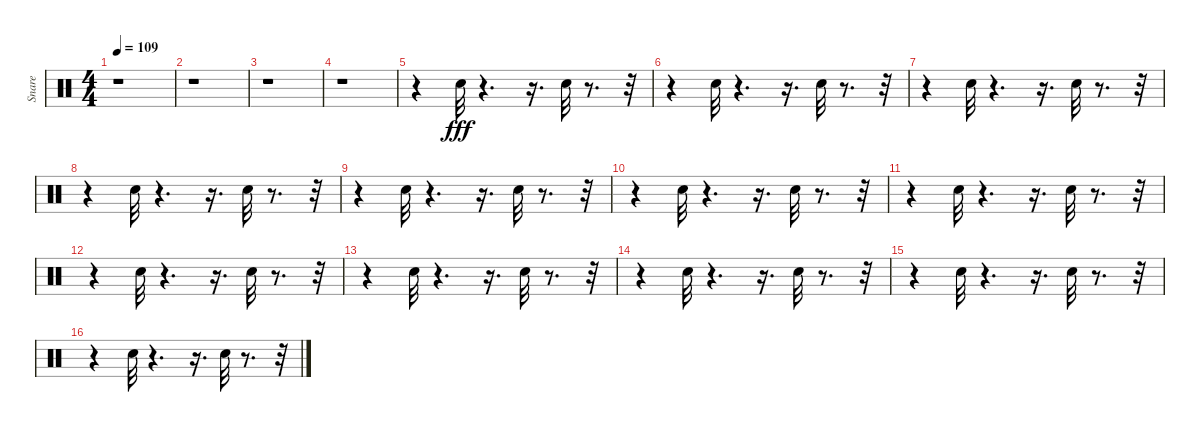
\track ("Snare" "Snare") {instrument percussion}
\staff {score}
\articulation defaults
\ts (4 4)
\tempo 109
\clef neutral
\ks c
r.1{dy fff} |
r.1 |
r.1 |
r.1 |
r.4 "Snare (hit) 2".32 r.4{d} r.16{d} "Snare (hit) 2".32 r.8{d} r.32 |
r.4 "Snare (hit) 2".32 r.4{d} r.16{d} "Snare (hit) 2".32 r.8{d} r.32 |
r.4 "Snare (hit) 2".32 r.4{d} r.16{d} "Snare (hit) 2".32 r.8{d} r.32 |
r.4 "Snare (hit) 2".32 r.4{d} r.16{d} "Snare (hit) 2".32 r.8{d} r.32 |
r.4 "Snare (hit) 2".32 r.4{d} r.16{d} "Snare (hit) 2".32 r.8{d} r.32 |
r.4 "Snare (hit) 2".32 r.4{d} r.16{d} "Snare (hit) 2".32 r.8{d} r.32 |
r.4 "Snare (hit) 2".32 r.4{d} r.16{d} "Snare (hit) 2".32 r.8{d} r.32 |
r.4 "Snare (hit) 2".32 r.4{d} r.16{d} "Snare (hit) 2".32 r.8{d} r.32 |
r.4 "Snare (hit) 2".32 r.4{d} r.16{d} "Snare (hit) 2".32 r.8{d} r.32 |
r.4 "Snare (hit) 2".32 r.4{d} r.16{d} "Snare (hit) 2".32 r.8{d} r.32 |
r.4 "Snare (hit) 2".32 r.4{d} r.16{d} "Snare (hit) 2".32 r.8{d} r.32 |
r.4 "Snare (hit) 2".32 r.4{d} r.16{d} "Snare (hit) 2".32 r.8{d} r.32
